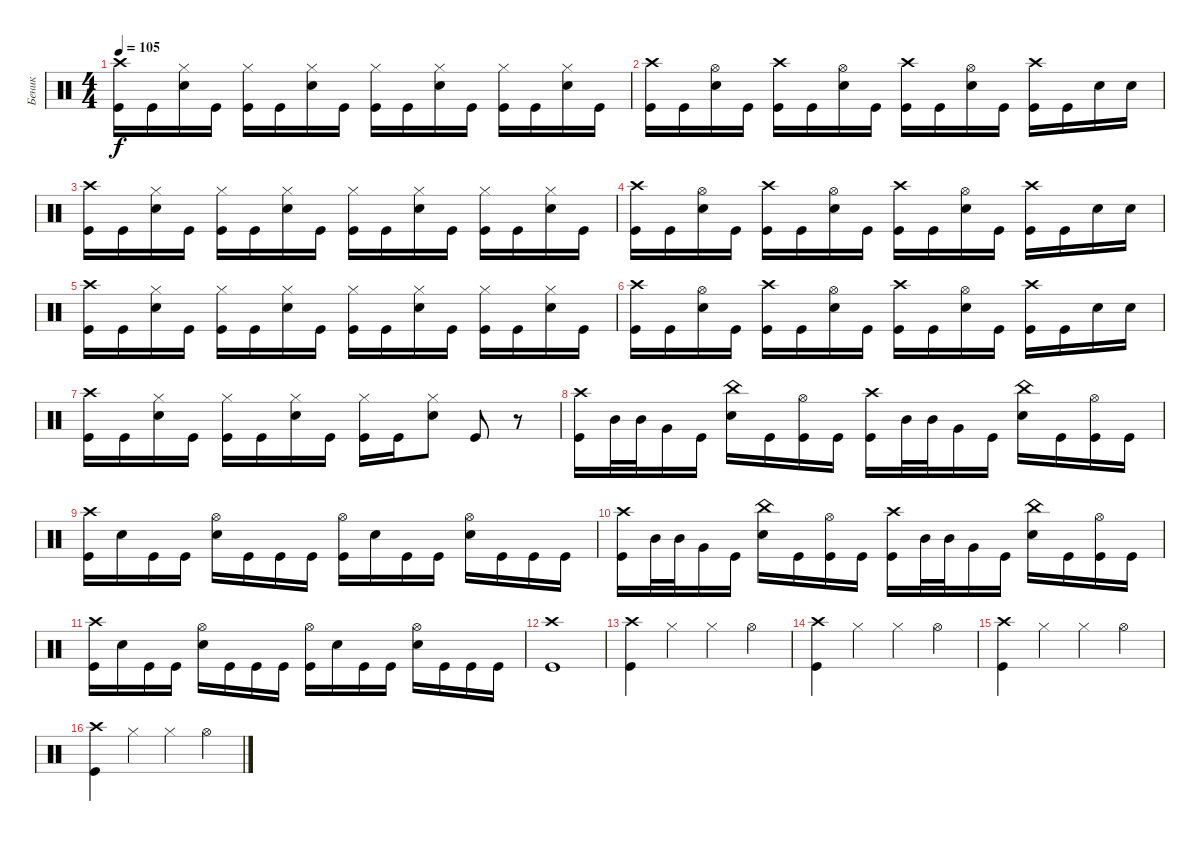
\track ("Беник" "Беник") {instrument percussion}
\staff {score}
\articulation defaults
\ts (4 4)
\tempo 105
\clef neutral
\ks c
("Crash high (hit)" "Kick (hit)").16{dy f} "Kick (hit)".16 ("Snare (hit) 2" "Hi-Hat (closed)").16 "Kick (hit)".16 ("Kick (hit)" "Hi-Hat (closed)").16 "Kick (hit)".16 ("Snare (hit) 2" "Hi-Hat (closed)").16 "Kick (hit)".16 ("Kick (hit)" "Hi-Hat (closed)").16 "Kick (hit)".16 ("Snare (hit) 2" "Hi-Hat (closed)").16 "Kick (hit)".16 ("Kick (hit)" "Hi-Hat (closed)").16 "Kick (hit)".16 ("Snare (hit) 2" "Hi-Hat (closed)").16 "Kick (hit)".16 |
("Crash high (hit)" "Kick (hit)").16 "Kick (hit)".16 ("Snare (hit) 2" "Hi-Hat (open)").16 "Kick (hit)".16 ("Kick (hit)" "Crash high (hit)").16 "Kick (hit)".16 ("Snare (hit) 2" "Hi-Hat (open)").16 "Kick (hit)".16 ("Kick (hit)" "Crash high (hit)").16 "Kick (hit)".16 ("Snare (hit) 2" "Hi-Hat (open)").16 "Kick (hit)".16 ("Kick (hit)" "Crash high (hit)").16 "Kick (hit)".16 "Snare (hit) 2".16 "Snare (hit) 2".16 |
("Crash high (hit)" "Kick (hit)").16 "Kick (hit)".16 ("Snare (hit) 2" "Hi-Hat (closed)").16 "Kick (hit)".16 ("Kick (hit)" "Hi-Hat (closed)").16 "Kick (hit)".16 ("Snare (hit) 2" "Hi-Hat (closed)").16 "Kick (hit)".16 ("Kick (hit)" "Hi-Hat (closed)").16 "Kick (hit)".16 ("Snare (hit) 2" "Hi-Hat (closed)").16 "Kick (hit)".16 ("Kick (hit)" "Hi-Hat (closed)").16 "Kick (hit)".16 ("Snare (hit) 2" "Hi-Hat (closed)").16 "Kick (hit)".16 |
("Crash high (hit)" "Kick (hit)").16 "Kick (hit)".16 ("Snare (hit) 2" "Hi-Hat (open)").16 "Kick (hit)".16 ("Kick (hit)" "Crash high (hit)").16 "Kick (hit)".16 ("Snare (hit) 2" "Hi-Hat (open)").16 "Kick (hit)".16 ("Kick (hit)" "Crash high (hit)").16 "Kick (hit)".16 ("Snare (hit) 2" "Hi-Hat (open)").16 "Kick (hit)".16 ("Kick (hit)" "Crash high (hit)").16 "Kick (hit)".16 "Snare (hit) 2".16 "Snare (hit) 2".16 |
("Crash high (hit)" "Kick (hit)").16 "Kick (hit)".16 ("Snare (hit) 2" "Hi-Hat (closed)").16 "Kick (hit)".16 ("Kick (hit)" "Hi-Hat (closed)").16 "Kick (hit)".16 ("Snare (hit) 2" "Hi-Hat (closed)").16 "Kick (hit)".16 ("Kick (hit)" "Hi-Hat (closed)").16 "Kick (hit)".16 ("Snare (hit) 2" "Hi-Hat (closed)").16 "Kick (hit)".16 ("Kick (hit)" "Hi-Hat (closed)").16 "Kick (hit)".16 ("Snare (hit) 2" "Hi-Hat (closed)").16 "Kick (hit)".16 |
("Crash high (hit)" "Kick (hit)").16 "Kick (hit)".16 ("Snare (hit) 2" "Hi-Hat (open)").16 "Kick (hit)".16 ("Kick (hit)" "Crash high (hit)").16 "Kick (hit)".16 ("Snare (hit) 2" "Hi-Hat (open)").16 "Kick (hit)".16 ("Kick (hit)" "Crash high (hit)").16 "Kick (hit)".16 ("Snare (hit) 2" "Hi-Hat (open)").16 "Kick (hit)".16 ("Kick (hit)" "Crash high (hit)").16 "Kick (hit)".16 "Snare (hit) 2".16 "Snare (hit) 2".16 |
("Crash high (hit)" "Kick (hit)").16 "Kick (hit)".16 ("Snare (hit) 2" "Hi-Hat (closed)").16 "Kick (hit)".16 ("Kick (hit)" "Hi-Hat (closed)").16 "Kick (hit)".16 ("Snare (hit) 2" "Hi-Hat (closed)").16 "Kick (hit)".16 ("Kick (hit)" "Hi-Hat (closed)").16 "Kick (hit)".16 ("Snare (hit) 2" "Hi-Hat (closed)").8 "Kick (hit)".8 r.8 |
("Kick (hit)" "Crash high (hit)").16 "Mid Tom (hit)".32 "Mid Tom (hit)".32 "Very Low Tom (hit)".16 "Kick (hit)".16 ("Snare (hit) 2" "China (hit)").16 "Kick (hit)".16 ("Kick (hit)" "Hi-Hat (open)").16 "Kick (hit)".16 ("Kick (hit)" "Crash high (hit)").16 "Mid Tom (hit)".32 "Mid Tom (hit)".32 "Very Low Tom (hit)".16 "Kick (hit)".16 ("Snare (hit) 2" "China (hit)").16 "Kick (hit)".16 ("Kick (hit)" "Hi-Hat (open)").16 "Kick (hit)".16 |
("Kick (hit)" "Crash high (hit)").16 "Snare (hit) 2".16 "Kick (hit)".16 "Kick (hit)".16 ("Snare (hit) 2" "Hi-Hat (open)").16 "Kick (hit)".16 "Kick (hit)".16 "Kick (hit)".16 ("Kick (hit)" "Hi-Hat (open)").16 "Snare (hit) 2".16 "Kick (hit)".16 "Kick (hit)".16 ("Snare (hit) 2" "Hi-Hat (open)").16 "Kick (hit)".16 "Kick (hit)".16 "Kick (hit)".16 |
("Kick (hit)" "Crash high (hit)").16 "Mid Tom (hit)".32 "Mid Tom (hit)".32 "Very Low Tom (hit)".16 "Kick (hit)".16 ("Snare (hit) 2" "China (hit)").16 "Kick (hit)".16 ("Kick (hit)" "Hi-Hat (open)").16 "Kick (hit)".16 ("Kick (hit)" "Crash high (hit)").16 "Mid Tom (hit)".32 "Mid Tom (hit)".32 "Very Low Tom (hit)".16 "Kick (hit)".16 ("Snare (hit) 2" "China (hit)").16 "Kick (hit)".16 ("Kick (hit)" "Hi-Hat (open)").16 "Kick (hit)".16 |
("Kick (hit)" "Crash high (hit)").16 "Snare (hit) 2".16 "Kick (hit)".16 "Kick (hit)".16 ("Snare (hit) 2" "Hi-Hat (open)").16 "Kick (hit)".16 "Kick (hit)".16 "Kick (hit)".16 ("Kick (hit)" "Hi-Hat (open)").16 "Snare (hit) 2".16 "Kick (hit)".16 "Kick (hit)".16 ("Snare (hit) 2" "Hi-Hat (open)").16 "Kick (hit)".16 "Kick (hit)".16 "Kick (hit)".16 |
("Kick (hit)" "Crash high (hit)").1 |
("Kick (hit)" "Crash high (hit)").4 "Hi-Hat (closed)".4 "Hi-Hat (closed)".4 "Hi-Hat (open)".4 |
("Kick (hit)" "Crash high (hit)").4 "Hi-Hat (closed)".4 "Hi-Hat (closed)".4 "Hi-Hat (open)".4 |
("Kick (hit)" "Crash high (hit)").4 "Hi-Hat (closed)".4 "Hi-Hat (closed)".4 "Hi-Hat (open)".4 |
("Kick (hit)" "Crash high (hit)").4 "Hi-Hat (closed)".4 "Hi-Hat (closed)".4 "Hi-Hat (open)".4
